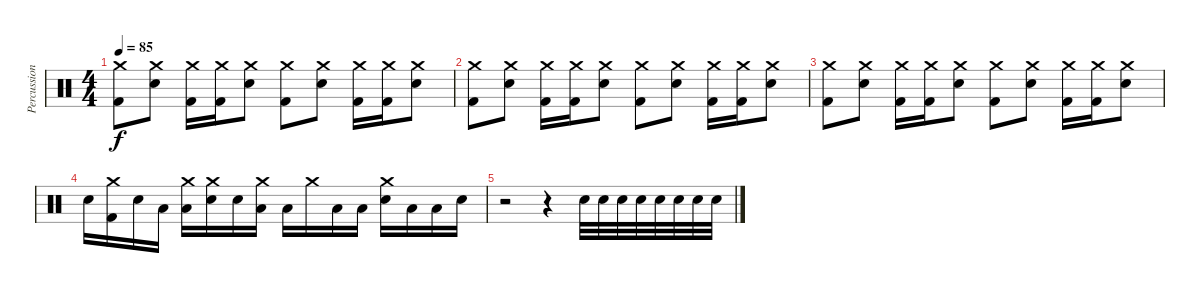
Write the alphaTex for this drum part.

\track ("Percussion" "Percussion") {instrument percussion}
\staff {score}
\articulation defaults
\ts (4 4)
\tempo 85
\clef neutral
\ks c
("Crash medium (hit)" "Kick (hit) 2").8{dy f} ("Crash medium (hit)" "Electric Snare (hit)").8 ("Crash medium (hit)" "Kick (hit) 2").16 ("Crash medium (hit)" "Kick (hit) 2").16 ("Crash medium (hit)" "Electric Snare (hit)").8 ("Crash medium (hit)" "Kick (hit) 2").8 ("Crash medium (hit)" "Electric Snare (hit)").8 ("Crash medium (hit)" "Kick (hit) 2").16 ("Crash medium (hit)" "Kick (hit) 2").16 ("Crash medium (hit)" "Electric Snare (hit)").8 |
("Crash medium (hit)" "Kick (hit) 2").8 ("Crash medium (hit)" "Electric Snare (hit)").8 ("Crash medium (hit)" "Kick (hit) 2").16 ("Crash medium (hit)" "Kick (hit) 2").16 ("Crash medium (hit)" "Electric Snare (hit)").8 ("Crash medium (hit)" "Kick (hit) 2").8 ("Crash medium (hit)" "Electric Snare (hit)").8 ("Crash medium (hit)" "Kick (hit) 2").16 ("Crash medium (hit)" "Kick (hit) 2").16 ("Crash medium (hit)" "Electric Snare (hit)").8 |
("Crash medium (hit)" "Kick (hit) 2").8 ("Crash medium (hit)" "Electric Snare (hit)").8 ("Crash medium (hit)" "Kick (hit) 2").16 ("Crash medium (hit)" "Kick (hit) 2").16 ("Crash medium (hit)" "Electric Snare (hit)").8 ("Crash medium (hit)" "Kick (hit) 2").8 ("Crash medium (hit)" "Electric Snare (hit)").8 ("Crash medium (hit)" "Kick (hit) 2").16 ("Crash medium (hit)" "Kick (hit) 2").16 ("Crash medium (hit)" "Electric Snare (hit)").8 |
"Electric Snare (hit)".16 ("Crash medium (hit)" "Kick (hit) 2").16 "Electric Snare (hit)".16 "Low Tom (hit)".16 ("Crash medium (hit)" "Low Floor Tom (hit)").16 ("Crash medium (hit)" "Electric Snare (hit)").16 "Electric Snare (hit)".16 ("Crash medium (hit)" "Low Tom (hit)").16 "Low Floor Tom (hit)".16 "Crash medium (hit)".16 "Low Tom (hit)".16 "Low Floor Tom (hit)".16 ("Crash medium (hit)" "Electric Snare (hit)").16 "Low Tom (hit)".16 "Low Floor Tom (hit)".16 "Electric Snare (hit)".16 |
r.2 r.4 "Electric Snare (hit)".32 "Electric Snare (hit)".32 "Electric Snare (hit)".32 "Electric Snare (hit)".32 "Electric Snare (hit)".32 "Electric Snare (hit)".32 "Electric Snare (hit)".32 "Electric Snare (hit)".32
